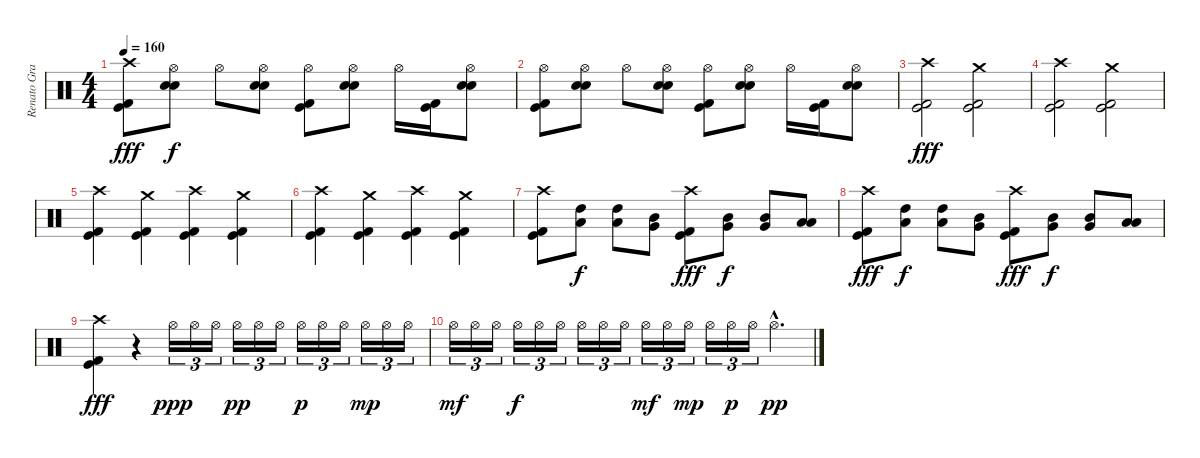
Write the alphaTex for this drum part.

\track ("Renato Graccia" "Renato Gra") {instrument percussion}
\staff {score}
\articulation defaults
\ts (4 4)
\tempo 160
\clef neutral
\ks c
("Crash high (hit)" "Kick (hit) 2" "Kick (hit)").8{dy fff} ("Hi-Hat (open)" "Electric Snare (hit)" "Snare (hit) 2").8{dy f} "Hi-Hat (open)".8 ("Hi-Hat (open)" "Electric Snare (hit)" "Snare (hit) 2").8 ("Hi-Hat (open)" "Kick (hit) 2" "Kick (hit)").8 ("Hi-Hat (open)" "Electric Snare (hit)" "Snare (hit) 2").8 "Hi-Hat (open)".16 ("Kick (hit) 2" "Kick (hit)").16 ("Hi-Hat (open)" "Electric Snare (hit)" "Snare (hit) 2").8 |
("Hi-Hat (open)" "Kick (hit) 2" "Kick (hit)").8 ("Hi-Hat (open)" "Electric Snare (hit)" "Snare (hit) 2").8 "Hi-Hat (open)".8 ("Hi-Hat (open)" "Electric Snare (hit)" "Snare (hit) 2").8 ("Hi-Hat (open)" "Kick (hit) 2" "Kick (hit)").8 ("Hi-Hat (open)" "Electric Snare (hit)" "Snare (hit) 2").8 "Hi-Hat (open)".16 ("Kick (hit) 2" "Kick (hit)").16 ("Hi-Hat (open)" "Electric Snare (hit)" "Snare (hit) 2").8 |
("Crash high (hit)" "Kick (hit) 2" "Kick (hit)").2{dy fff} ("Crash medium (hit)" "Kick (hit) 2" "Kick (hit)").2 |
("Crash high (hit)" "Kick (hit) 2" "Kick (hit)").2 ("Crash medium (hit)" "Kick (hit) 2" "Kick (hit)").2 |
("Crash high (hit)" "Kick (hit) 2" "Kick (hit)").4 ("Crash medium (hit)" "Kick (hit) 2" "Kick (hit)").4 ("Crash high (hit)" "Kick (hit) 2" "Kick (hit)").4 ("Crash medium (hit)" "Kick (hit) 2" "Kick (hit)").4 |
("Crash high (hit)" "Kick (hit) 2" "Kick (hit)").4 ("Crash medium (hit)" "Kick (hit) 2" "Kick (hit)").4 ("Crash high (hit)" "Kick (hit) 2" "Kick (hit)").4 ("Crash medium (hit)" "Kick (hit) 2" "Kick (hit)").4 |
("Crash high (hit)" "Kick (hit) 2" "Kick (hit)").8 ("High Tom (hit)" "Low Tom (hit)").8{dy f} ("High Tom (hit)" "Low Tom (hit)").8 ("Mid Tom (hit)" "Very Low Tom (hit)").8 ("Crash high (hit)" "Kick (hit) 2" "Kick (hit)").8{dy fff} ("Mid Tom (hit)" "Very Low Tom (hit)").8{dy f} ("Mid Tom (hit)" "Very Low Tom (hit)").8 ("Low Tom (hit)" "Low Floor Tom (hit)").8 |
("Crash high (hit)" "Kick (hit) 2" "Kick (hit)").8{dy fff} ("High Tom (hit)" "Low Tom (hit)").8{dy f} ("High Tom (hit)" "Low Tom (hit)").8 ("Mid Tom (hit)" "Very Low Tom (hit)").8 ("Crash high (hit)" "Kick (hit) 2" "Kick (hit)").8{dy fff} ("Mid Tom (hit)" "Very Low Tom (hit)").8{dy f} ("Mid Tom (hit)" "Very Low Tom (hit)").8 ("Low Tom (hit)" "Low Floor Tom (hit)").8 |
("Crash high (hit)" "Kick (hit) 2" "Kick (hit)").4{dy fff} r.4 "Hi-Hat (open)".16{tu (3 2) dy ppp} "Hi-Hat (open)".16{tu (3 2)} "Hi-Hat (open)".16{tu (3 2)} "Hi-Hat (open)".16{tu (3 2) dy pp} "Hi-Hat (open)".16{tu (3 2)} "Hi-Hat (open)".16{tu (3 2)} "Hi-Hat (open)".16{tu (3 2) dy p} "Hi-Hat (open)".16{tu (3 2)} "Hi-Hat (open)".16{tu (3 2)} "Hi-Hat (open)".16{tu (3 2) dy mp} "Hi-Hat (open)".16{tu (3 2)} "Hi-Hat (open)".16{tu (3 2)} |
"Hi-Hat (open)".16{tu (3 2) dy mf} "Hi-Hat (open)".16{tu (3 2)} "Hi-Hat (open)".16{tu (3 2)} "Hi-Hat (open)".16{tu (3 2) dy f} "Hi-Hat (open)".16{tu (3 2)} "Hi-Hat (open)".16{tu (3 2)} "Hi-Hat (open)".16{tu (3 2)} "Hi-Hat (open)".16{tu (3 2)} "Hi-Hat (open)".16{tu (3 2)} "Hi-Hat (open)".16{tu (3 2) dy mf} "Hi-Hat (open)".16{tu (3 2)} "Hi-Hat (open)".16{tu (3 2) dy mp} "Hi-Hat (open)".16{tu (3 2)} "Hi-Hat (open)".16{tu (3 2) dy p} "Hi-Hat (open)".16{tu (3 2)} "Hi-Hat (open)"{hac}.4{d dy pp}
